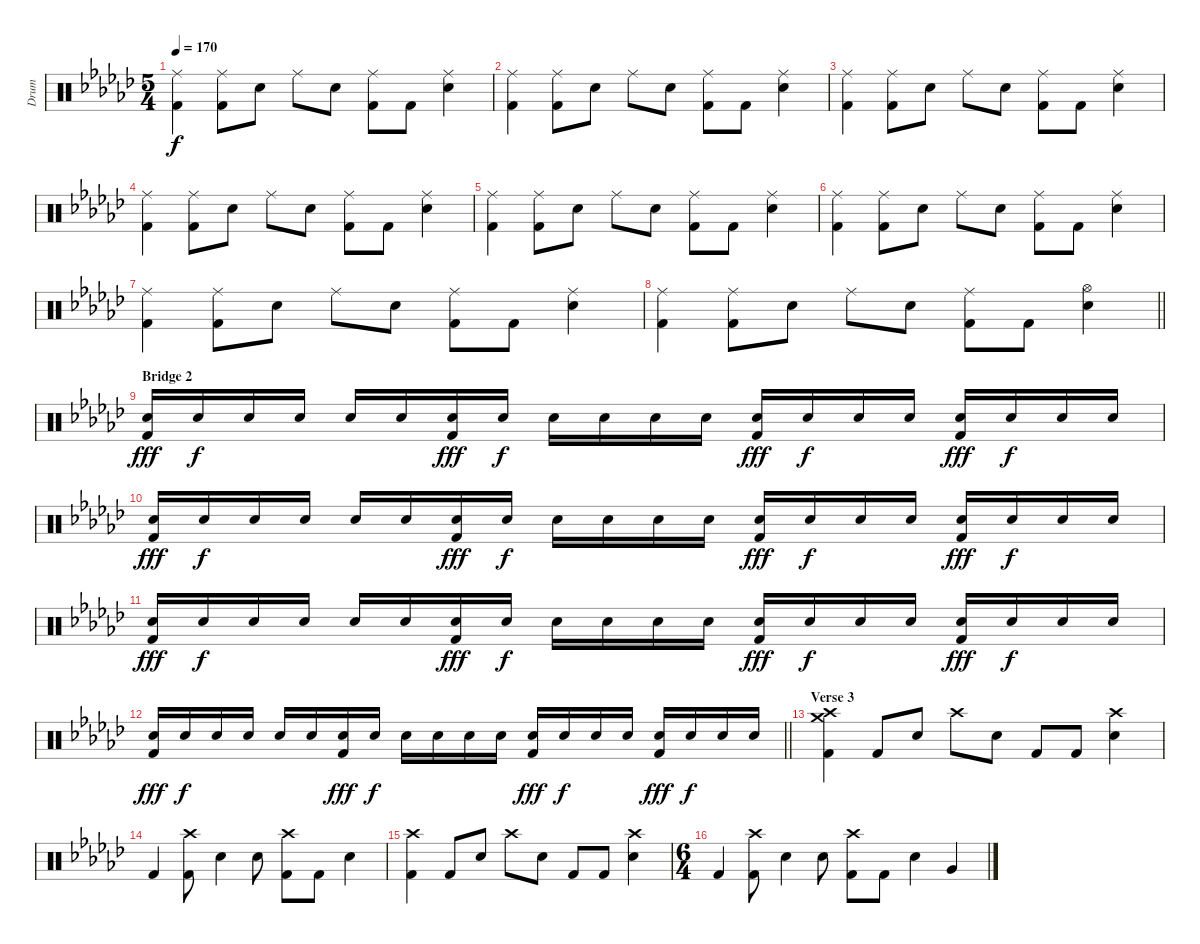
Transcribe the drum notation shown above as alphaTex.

\track ("Drum" "Drum") {instrument percussion}
\staff {score}
\articulation defaults
\ts (5 4)
\tempo 170
\clef neutral
\ks gb
("Ride (middle)" "Kick (hit) 2").4{dy f} ("Ride (middle)" "Kick (hit) 2").8 "Snare (hit) 2".8 "Ride (middle)".8 "Snare (hit) 2".8 ("Ride (middle)" "Kick (hit) 2").8 "Kick (hit) 2".8 ("Ride (middle)" "Snare (hit) 2").4 |
("Ride (middle)" "Kick (hit) 2").4 ("Ride (middle)" "Kick (hit) 2").8 "Snare (hit) 2".8 "Ride (middle)".8 "Snare (hit) 2".8 ("Ride (middle)" "Kick (hit) 2").8 "Kick (hit) 2".8 ("Ride (middle)" "Snare (hit) 2").4 |
("Ride (middle)" "Kick (hit) 2").4 ("Ride (middle)" "Kick (hit) 2").8 "Snare (hit) 2".8 "Ride (middle)".8 "Snare (hit) 2".8 ("Ride (middle)" "Kick (hit) 2").8 "Kick (hit) 2".8 ("Ride (middle)" "Snare (hit) 2").4 |
("Ride (middle)" "Kick (hit) 2").4 ("Ride (middle)" "Kick (hit) 2").8 "Snare (hit) 2".8 "Ride (middle)".8 "Snare (hit) 2".8 ("Ride (middle)" "Kick (hit) 2").8 "Kick (hit) 2".8 ("Ride (middle)" "Snare (hit) 2").4 |
("Ride (middle)" "Kick (hit) 2").4 ("Ride (middle)" "Kick (hit) 2").8 "Snare (hit) 2".8 "Ride (middle)".8 "Snare (hit) 2".8 ("Ride (middle)" "Kick (hit) 2").8 "Kick (hit) 2".8 ("Ride (middle)" "Snare (hit) 2").4 |
("Ride (middle)" "Kick (hit) 2").4 ("Ride (middle)" "Kick (hit) 2").8 "Snare (hit) 2".8 "Ride (middle)".8 "Snare (hit) 2".8 ("Ride (middle)" "Kick (hit) 2").8 "Kick (hit) 2".8 ("Ride (middle)" "Snare (hit) 2").4 |
("Ride (middle)" "Kick (hit) 2").4 ("Ride (middle)" "Kick (hit) 2").8 "Snare (hit) 2".8 "Ride (middle)".8 "Snare (hit) 2".8 ("Ride (middle)" "Kick (hit) 2").8 "Kick (hit) 2".8 ("Ride (middle)" "Snare (hit) 2").4 |
\barLineRight lightlight
("Ride (middle)" "Kick (hit) 2").4 ("Ride (middle)" "Kick (hit) 2").8 "Snare (hit) 2".8 "Ride (middle)".8 "Snare (hit) 2".8 ("Ride (middle)" "Kick (hit) 2").8 "Kick (hit) 2".8 ("Hi-Hat (open)" "Snare (hit) 2").4 |
\section ("" "Bridge 2")
("Snare (hit) 2" "Kick (hit) 2").16{dy fff volume 5} "Snare (hit) 2".16{dy f} "Snare (hit) 2".16 "Snare (hit) 2".16 "Snare (hit) 2".16 "Snare (hit) 2".16 ("Snare (hit) 2" "Kick (hit) 2").16{dy fff} "Snare (hit) 2".16{dy f} "Snare (hit) 2".16 "Snare (hit) 2".16 "Snare (hit) 2".16 "Snare (hit) 2".16 ("Snare (hit) 2" "Kick (hit) 2").16{dy fff} "Snare (hit) 2".16{dy f} "Snare (hit) 2".16 "Snare (hit) 2".16 ("Snare (hit) 2" "Kick (hit) 2").16{dy fff} "Snare (hit) 2".16{dy f} "Snare (hit) 2".16 "Snare (hit) 2".16 |
("Snare (hit) 2" "Kick (hit) 2").16{dy fff} "Snare (hit) 2".16{dy f} "Snare (hit) 2".16 "Snare (hit) 2".16 "Snare (hit) 2".16 "Snare (hit) 2".16 ("Snare (hit) 2" "Kick (hit) 2").16{dy fff} "Snare (hit) 2".16{dy f} "Snare (hit) 2".16 "Snare (hit) 2".16 "Snare (hit) 2".16 "Snare (hit) 2".16 ("Snare (hit) 2" "Kick (hit) 2").16{dy fff} "Snare (hit) 2".16{dy f} "Snare (hit) 2".16 "Snare (hit) 2".16 ("Snare (hit) 2" "Kick (hit) 2").16{dy fff} "Snare (hit) 2".16{dy f} "Snare (hit) 2".16 "Snare (hit) 2".16 |
("Snare (hit) 2" "Kick (hit) 2").16{dy fff} "Snare (hit) 2".16{dy f} "Snare (hit) 2".16 "Snare (hit) 2".16 "Snare (hit) 2".16 "Snare (hit) 2".16 ("Snare (hit) 2" "Kick (hit) 2").16{dy fff} "Snare (hit) 2".16{dy f} "Snare (hit) 2".16 "Snare (hit) 2".16 "Snare (hit) 2".16 "Snare (hit) 2".16 ("Snare (hit) 2" "Kick (hit) 2").16{dy fff} "Snare (hit) 2".16{dy f} "Snare (hit) 2".16 "Snare (hit) 2".16 ("Snare (hit) 2" "Kick (hit) 2").16{dy fff} "Snare (hit) 2".16{dy f} "Snare (hit) 2".16 "Snare (hit) 2".16 |
\barLineRight lightlight
("Snare (hit) 2" "Kick (hit) 2").16{dy fff} "Snare (hit) 2".16{dy f} "Snare (hit) 2".16 "Snare (hit) 2".16 "Snare (hit) 2".16 "Snare (hit) 2".16 ("Snare (hit) 2" "Kick (hit) 2").16{dy fff} "Snare (hit) 2".16{dy f} "Snare (hit) 2".16 "Snare (hit) 2".16 "Snare (hit) 2".16 "Snare (hit) 2".16 ("Snare (hit) 2" "Kick (hit) 2").16{dy fff} "Snare (hit) 2".16{dy f} "Snare (hit) 2".16 "Snare (hit) 2".16 ("Snare (hit) 2" "Kick (hit) 2").16{dy fff} "Snare (hit) 2".16{dy f} "Snare (hit) 2".16 "Snare (hit) 2".16 |
\section ("" "Verse 3")
("Crash high (hit)" "Crash medium (hit)" "Kick (hit) 2").4{volume 14} "Kick (hit) 2".8 "Snare (hit) 2".8 "Crash high (hit)".8 "Snare (hit) 2".8 "Kick (hit) 2".8 "Kick (hit) 2".8 ("Crash high (hit)" "Snare (hit) 2").4 |
"Kick (hit) 2".4 ("Crash high (hit)" "Kick (hit) 2").8 "Snare (hit) 2".4 "Snare (hit) 2".8 ("Crash high (hit)" "Kick (hit) 2").8 "Kick (hit) 2".8 "Snare (hit) 2".4 |
("Crash high (hit)" "Kick (hit) 2").4 "Kick (hit) 2".8 "Snare (hit) 2".8 "Crash high (hit)".8 "Snare (hit) 2".8 "Kick (hit) 2".8 "Kick (hit) 2".8 ("Crash high (hit)" "Snare (hit) 2").4 |
\ts (6 4)
"Kick (hit) 2".4 ("Crash high (hit)" "Kick (hit) 2").8 "Snare (hit) 2".4 "Snare (hit) 2".8 ("Crash high (hit)" "Kick (hit) 2").8 "Kick (hit) 2".8 "Snare (hit) 2".4 "Very Low Tom (hit)".4
